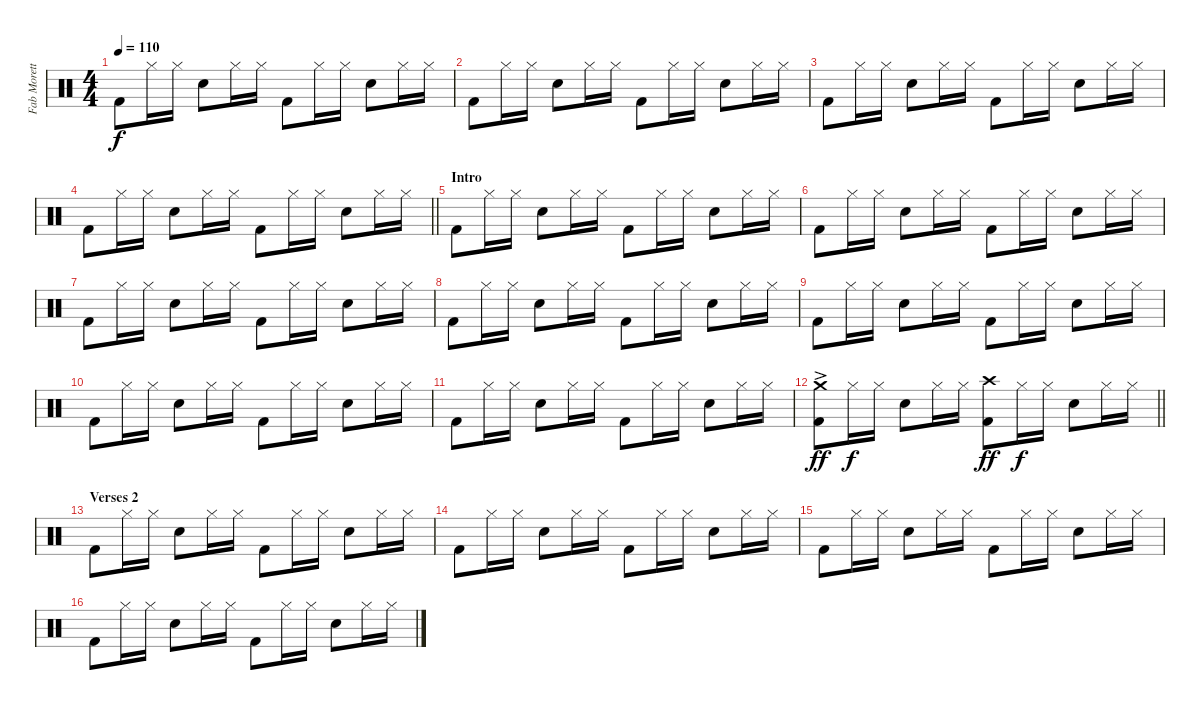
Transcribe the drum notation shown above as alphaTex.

\track ("Fab Moretti" "Fab Morett") {instrument percussion}
\staff {score}
\articulation defaults
\ts (4 4)
\tempo 110
\clef neutral
\ks c "Kick (hit) 2".8{dy f} "Hi-Hat (closed)".16 "Hi-Hat (closed)".16 "Electric Snare (hit)".8 "Hi-Hat (closed)".16 "Hi-Hat (closed)".16 "Kick (hit) 2".8 "Hi-Hat (closed)".16 "Hi-Hat (closed)".16 "Electric Snare (hit)".8 "Hi-Hat (closed)".16 "Hi-Hat (closed)".16
|
"Kick (hit) 2".8 "Hi-Hat (closed)".16 "Hi-Hat (closed)".16 "Electric Snare (hit)".8 "Hi-Hat (closed)".16 "Hi-Hat (closed)".16 "Kick (hit) 2".8 "Hi-Hat (closed)".16 "Hi-Hat (closed)".16 "Electric Snare (hit)".8 "Hi-Hat (closed)".16 "Hi-Hat (closed)".16 |
"Kick (hit) 2".8 "Hi-Hat (closed)".16 "Hi-Hat (closed)".16 "Electric Snare (hit)".8 "Hi-Hat (closed)".16 "Hi-Hat (closed)".16 "Kick (hit) 2".8 "Hi-Hat (closed)".16 "Hi-Hat (closed)".16 "Electric Snare (hit)".8 "Hi-Hat (closed)".16 "Hi-Hat (closed)".16 |
\barLineRight lightlight "Kick (hit) 2".8 "Hi-Hat (closed)".16 "Hi-Hat (closed)".16 "Electric Snare (hit)".8 "Hi-Hat (closed)".16 "Hi-Hat (closed)".16 "Kick (hit) 2".8 "Hi-Hat (closed)".16 "Hi-Hat (closed)".16 "Electric Snare (hit)".8 "Hi-Hat (closed)".16 "Hi-Hat (closed)".16
|
\section ("" "Intro")
"Kick (hit) 2".8 "Hi-Hat (closed)".16 "Hi-Hat (closed)".16 "Electric Snare (hit)".8 "Hi-Hat (closed)".16 "Hi-Hat (closed)".16 "Kick (hit) 2".8 "Hi-Hat (closed)".16 "Hi-Hat (closed)".16 "Electric Snare (hit)".8 "Hi-Hat (closed)".16 "Hi-Hat (closed)".16 |
"Kick (hit) 2".8 "Hi-Hat (closed)".16 "Hi-Hat (closed)".16 "Electric Snare (hit)".8 "Hi-Hat (closed)".16 "Hi-Hat (closed)".16 "Kick (hit) 2".8 "Hi-Hat (closed)".16 "Hi-Hat (closed)".16 "Electric Snare (hit)".8 "Hi-Hat (closed)".16 "Hi-Hat (closed)".16 |
"Kick (hit) 2".8 "Hi-Hat (closed)".16 "Hi-Hat (closed)".16 "Electric Snare (hit)".8 "Hi-Hat (closed)".16 "Hi-Hat (closed)".16 "Kick (hit) 2".8 "Hi-Hat (closed)".16 "Hi-Hat (closed)".16 "Electric Snare (hit)".8 "Hi-Hat (closed)".16 "Hi-Hat (closed)".16 |
"Kick (hit) 2".8 "Hi-Hat (closed)".16 "Hi-Hat (closed)".16 "Electric Snare (hit)".8 "Hi-Hat (closed)".16 "Hi-Hat (closed)".16 "Kick (hit) 2".8 "Hi-Hat (closed)".16 "Hi-Hat (closed)".16 "Electric Snare (hit)".8 "Hi-Hat (closed)".16 "Hi-Hat (closed)".16 |
"Kick (hit) 2".8 "Hi-Hat (closed)".16 "Hi-Hat (closed)".16 "Electric Snare (hit)".8 "Hi-Hat (closed)".16 "Hi-Hat (closed)".16 "Kick (hit) 2".8 "Hi-Hat (closed)".16 "Hi-Hat (closed)".16 "Electric Snare (hit)".8 "Hi-Hat (closed)".16 "Hi-Hat (closed)".16 |
"Kick (hit) 2".8 "Hi-Hat (closed)".16 "Hi-Hat (closed)".16 "Electric Snare (hit)".8 "Hi-Hat (closed)".16 "Hi-Hat (closed)".16 "Kick (hit) 2".8 "Hi-Hat (closed)".16 "Hi-Hat (closed)".16 "Electric Snare (hit)".8 "Hi-Hat (closed)".16 "Hi-Hat (closed)".16 |
"Kick (hit) 2".8 "Hi-Hat (closed)".16 "Hi-Hat (closed)".16 "Electric Snare (hit)".8 "Hi-Hat (closed)".16 "Hi-Hat (closed)".16 "Kick (hit) 2".8 "Hi-Hat (closed)".16 "Hi-Hat (closed)".16 "Electric Snare (hit)".8 "Hi-Hat (closed)".16 "Hi-Hat (closed)".16 |
\barLineRight lightlight
("Kick (hit) 2" "Crash medium (hit)"{ac}).8{dy ff} "Hi-Hat (closed)".16{dy f} "Hi-Hat (closed)".16 "Electric Snare (hit)".8 "Hi-Hat (closed)".16 "Hi-Hat (closed)".16 ("Kick (hit) 2" "Crash high (hit)").8{dy ff} "Hi-Hat (closed)".16{dy f} "Hi-Hat (closed)".16 "Electric Snare (hit)".8 "Hi-Hat (closed)".16 "Hi-Hat (closed)".16 |
\section ("" "Verses 2")
"Kick (hit) 2".8 "Hi-Hat (closed)".16 "Hi-Hat (closed)".16 "Electric Snare (hit)".8 "Hi-Hat (closed)".16 "Hi-Hat (closed)".16 "Kick (hit) 2".8 "Hi-Hat (closed)".16 "Hi-Hat (closed)".16 "Electric Snare (hit)".8 "Hi-Hat (closed)".16 "Hi-Hat (closed)".16 |
"Kick (hit) 2".8 "Hi-Hat (closed)".16 "Hi-Hat (closed)".16 "Electric Snare (hit)".8 "Hi-Hat (closed)".16 "Hi-Hat (closed)".16 "Kick (hit) 2".8 "Hi-Hat (closed)".16 "Hi-Hat (closed)".16 "Electric Snare (hit)".8 "Hi-Hat (closed)".16 "Hi-Hat (closed)".16 |
"Kick (hit) 2".8 "Hi-Hat (closed)".16 "Hi-Hat (closed)".16 "Electric Snare (hit)".8 "Hi-Hat (closed)".16 "Hi-Hat (closed)".16 "Kick (hit) 2".8 "Hi-Hat (closed)".16 "Hi-Hat (closed)".16 "Electric Snare (hit)".8 "Hi-Hat (closed)".16 "Hi-Hat (closed)".16 |
"Kick (hit) 2".8 "Hi-Hat (closed)".16 "Hi-Hat (closed)".16 "Electric Snare (hit)".8 "Hi-Hat (closed)".16 "Hi-Hat (closed)".16 "Kick (hit) 2".8 "Hi-Hat (closed)".16 "Hi-Hat (closed)".16 "Electric Snare (hit)".8 "Hi-Hat (closed)".16 "Hi-Hat (closed)".16
